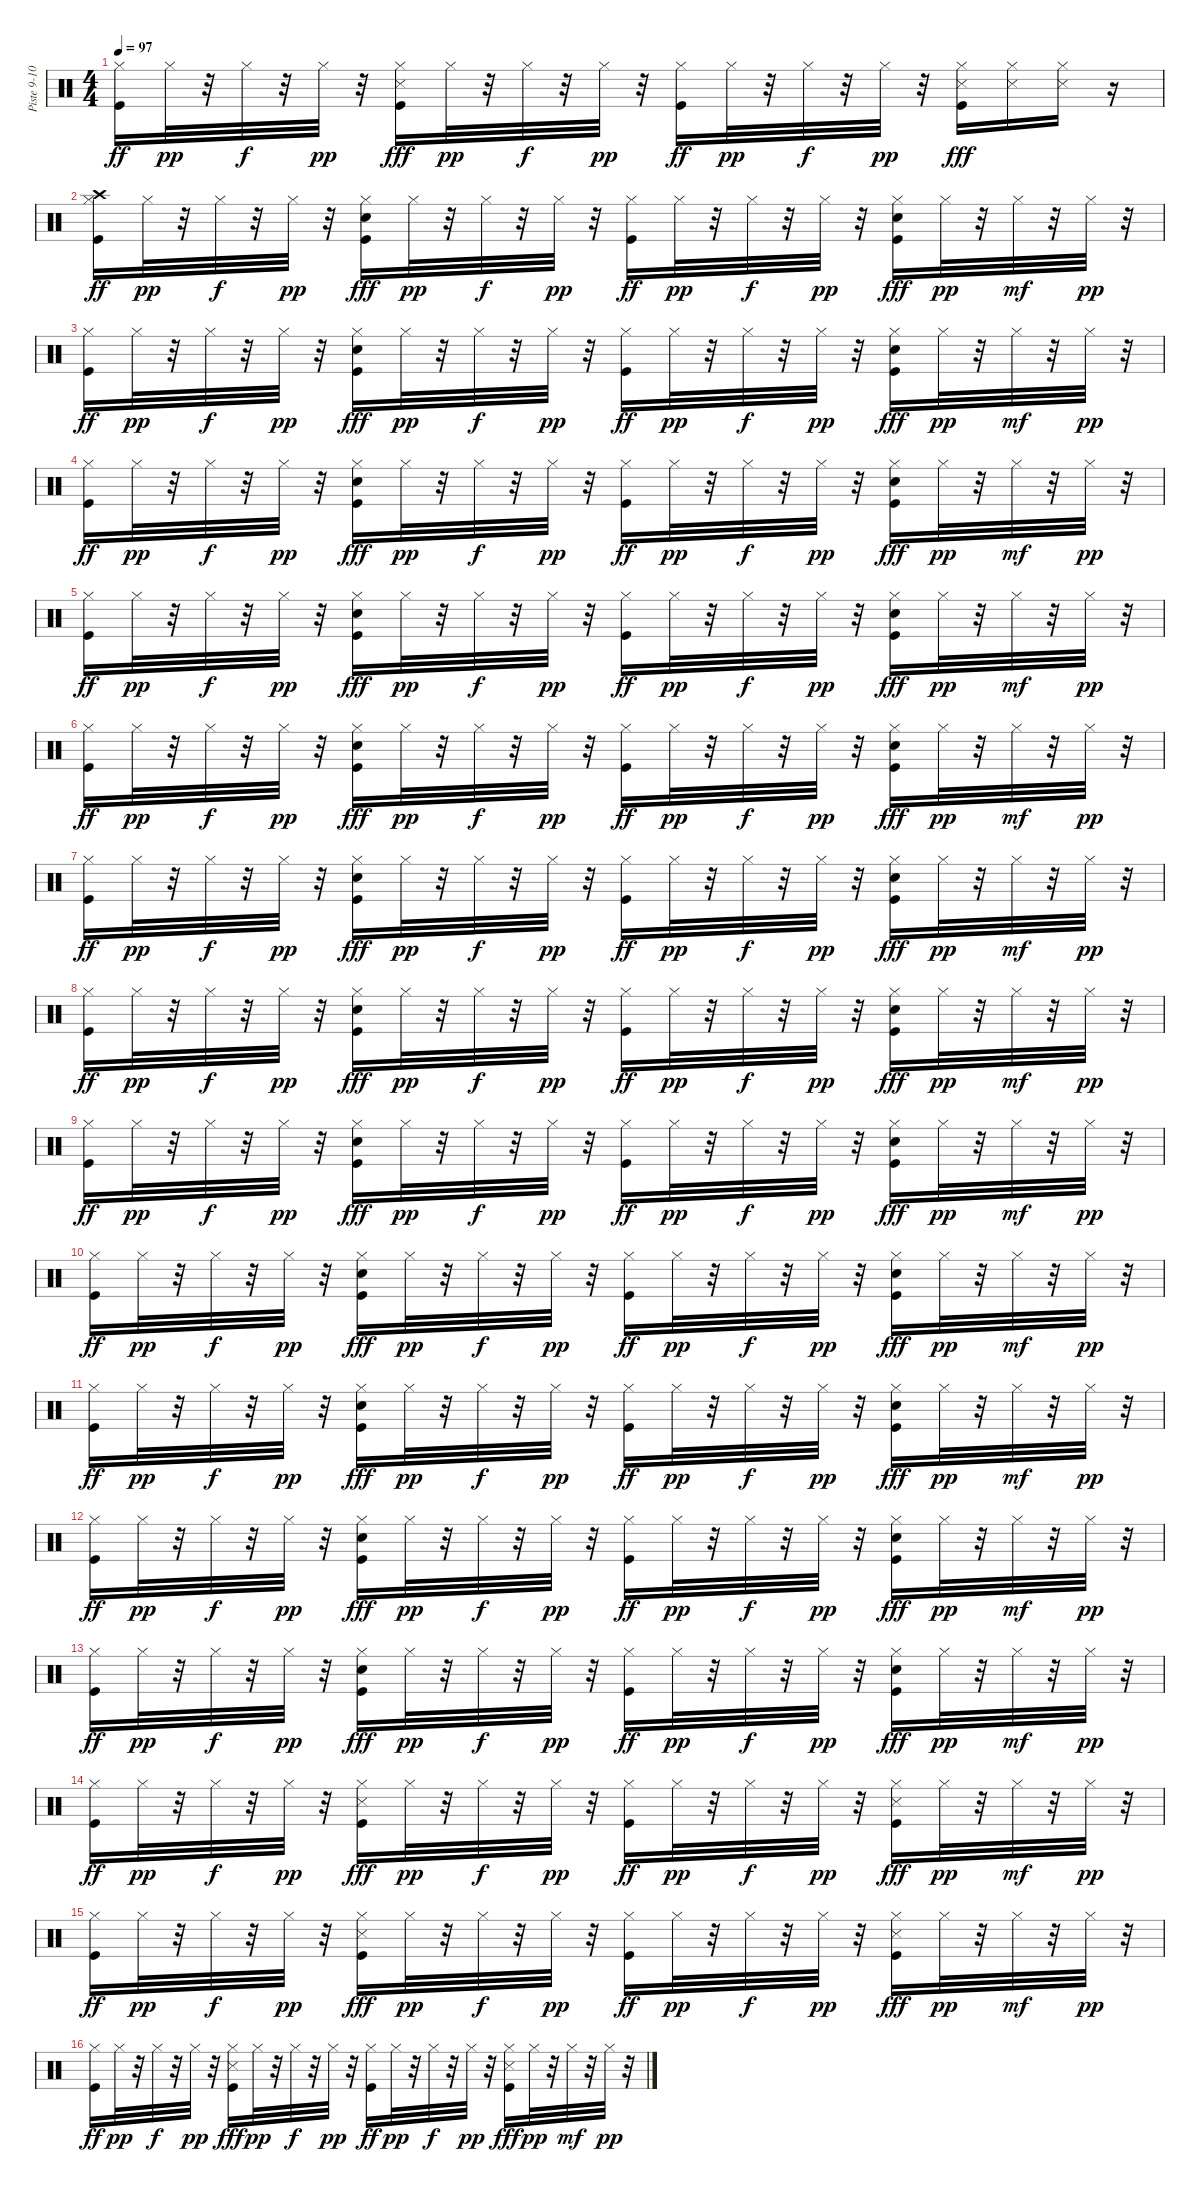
\track ("Piste 9-10-11-12-13-14" "Piste 9-10") {instrument percussion}
\staff {score}
\articulation defaults
\ts (4 4)
\tempo 97
\clef neutral
\ks c
("Hi-Hat (closed)" "Kick (hit)").16{dy ff} "Hi-Hat (closed)".32{dy pp} r.32 "Hi-Hat (closed)".32{dy f} r.32 "Hi-Hat (closed)".32{dy pp} r.32 ("Hi-Hat (closed)" "Kick (hit)" "Snare (side stick) 3").16{dy fff} "Hi-Hat (closed)".32{dy pp} r.32 "Hi-Hat (closed)".32{dy f} r.32 "Hi-Hat (closed)".32{dy pp} r.32 ("Hi-Hat (closed)" "Kick (hit)").16{dy ff} "Hi-Hat (closed)".32{dy pp} r.32 "Hi-Hat (closed)".32{dy f} r.32 "Hi-Hat (closed)".32{dy pp} r.32 ("Hi-Hat (closed)" "Kick (hit)" "Snare (side stick) 3").16{dy fff} ("Hi-Hat (closed)" "Snare (side stick) 3").16 ("Hi-Hat (closed)" "Snare (side stick) 3").16 r.16 |
("Hi-Hat (closed)" "Crash high (hit)" "Kick (hit)").16{dy ff} "Hi-Hat (closed)".32{dy pp} r.32 "Hi-Hat (closed)".32{dy f} r.32 "Hi-Hat (closed)".32{dy pp} r.32 ("Hi-Hat (closed)" "Snare (hit) 2" "Kick (hit)").16{dy fff} "Hi-Hat (closed)".32{dy pp} r.32 "Hi-Hat (closed)".32{dy f} r.32 "Hi-Hat (closed)".32{dy pp} r.32 ("Hi-Hat (closed)" "Kick (hit)").16{dy ff} "Hi-Hat (closed)".32{dy pp} r.32 "Hi-Hat (closed)".32{dy f} r.32 "Hi-Hat (closed)".32{dy pp} r.32 ("Hi-Hat (closed)" "Snare (hit) 2" "Kick (hit)").16{dy fff} "Hi-Hat (closed)".32{dy pp} r.32 "Hi-Hat (closed)".32{dy mf} r.32 "Hi-Hat (closed)".32{dy pp} r.32 |
("Hi-Hat (closed)" "Kick (hit)").16{dy ff} "Hi-Hat (closed)".32{dy pp} r.32 "Hi-Hat (closed)".32{dy f} r.32 "Hi-Hat (closed)".32{dy pp} r.32 ("Hi-Hat (closed)" "Snare (hit) 2" "Kick (hit)").16{dy fff} "Hi-Hat (closed)".32{dy pp} r.32 "Hi-Hat (closed)".32{dy f} r.32 "Hi-Hat (closed)".32{dy pp} r.32 ("Hi-Hat (closed)" "Kick (hit)").16{dy ff} "Hi-Hat (closed)".32{dy pp} r.32 "Hi-Hat (closed)".32{dy f} r.32 "Hi-Hat (closed)".32{dy pp} r.32 ("Hi-Hat (closed)" "Snare (hit) 2" "Kick (hit)").16{dy fff} "Hi-Hat (closed)".32{dy pp} r.32 "Hi-Hat (closed)".32{dy mf} r.32 "Hi-Hat (closed)".32{dy pp} r.32 |
("Hi-Hat (closed)" "Kick (hit)").16{dy ff} "Hi-Hat (closed)".32{dy pp} r.32 "Hi-Hat (closed)".32{dy f} r.32 "Hi-Hat (closed)".32{dy pp} r.32 ("Hi-Hat (closed)" "Snare (hit) 2" "Kick (hit)").16{dy fff} "Hi-Hat (closed)".32{dy pp} r.32 "Hi-Hat (closed)".32{dy f} r.32 "Hi-Hat (closed)".32{dy pp} r.32 ("Hi-Hat (closed)" "Kick (hit)").16{dy ff} "Hi-Hat (closed)".32{dy pp} r.32 "Hi-Hat (closed)".32{dy f} r.32 "Hi-Hat (closed)".32{dy pp} r.32 ("Hi-Hat (closed)" "Snare (hit) 2" "Kick (hit)").16{dy fff} "Hi-Hat (closed)".32{dy pp} r.32 "Hi-Hat (closed)".32{dy mf} r.32 "Hi-Hat (closed)".32{dy pp} r.32 |
("Hi-Hat (closed)" "Kick (hit)").16{dy ff} "Hi-Hat (closed)".32{dy pp} r.32 "Hi-Hat (closed)".32{dy f} r.32 "Hi-Hat (closed)".32{dy pp} r.32 ("Hi-Hat (closed)" "Snare (hit) 2" "Kick (hit)").16{dy fff} "Hi-Hat (closed)".32{dy pp} r.32 "Hi-Hat (closed)".32{dy f} r.32 "Hi-Hat (closed)".32{dy pp} r.32 ("Hi-Hat (closed)" "Kick (hit)").16{dy ff} "Hi-Hat (closed)".32{dy pp} r.32 "Hi-Hat (closed)".32{dy f} r.32 "Hi-Hat (closed)".32{dy pp} r.32 ("Hi-Hat (closed)" "Snare (hit) 2" "Kick (hit)").16{dy fff} "Hi-Hat (closed)".32{dy pp} r.32 "Hi-Hat (closed)".32{dy mf} r.32 "Hi-Hat (closed)".32{dy pp} r.32 |
("Hi-Hat (closed)" "Kick (hit)").16{dy ff} "Hi-Hat (closed)".32{dy pp} r.32 "Hi-Hat (closed)".32{dy f} r.32 "Hi-Hat (closed)".32{dy pp} r.32 ("Hi-Hat (closed)" "Snare (hit) 2" "Kick (hit)").16{dy fff} "Hi-Hat (closed)".32{dy pp} r.32 "Hi-Hat (closed)".32{dy f} r.32 "Hi-Hat (closed)".32{dy pp} r.32 ("Hi-Hat (closed)" "Kick (hit)").16{dy ff} "Hi-Hat (closed)".32{dy pp} r.32 "Hi-Hat (closed)".32{dy f} r.32 "Hi-Hat (closed)".32{dy pp} r.32 ("Hi-Hat (closed)" "Snare (hit) 2" "Kick (hit)").16{dy fff} "Hi-Hat (closed)".32{dy pp} r.32 "Hi-Hat (closed)".32{dy mf} r.32 "Hi-Hat (closed)".32{dy pp} r.32 |
("Hi-Hat (closed)" "Kick (hit)").16{dy ff} "Hi-Hat (closed)".32{dy pp} r.32 "Hi-Hat (closed)".32{dy f} r.32 "Hi-Hat (closed)".32{dy pp} r.32 ("Hi-Hat (closed)" "Snare (hit) 2" "Kick (hit)").16{dy fff} "Hi-Hat (closed)".32{dy pp} r.32 "Hi-Hat (closed)".32{dy f} r.32 "Hi-Hat (closed)".32{dy pp} r.32 ("Hi-Hat (closed)" "Kick (hit)").16{dy ff} "Hi-Hat (closed)".32{dy pp} r.32 "Hi-Hat (closed)".32{dy f} r.32 "Hi-Hat (closed)".32{dy pp} r.32 ("Hi-Hat (closed)" "Snare (hit) 2" "Kick (hit)").16{dy fff} "Hi-Hat (closed)".32{dy pp} r.32 "Hi-Hat (closed)".32{dy mf} r.32 "Hi-Hat (closed)".32{dy pp} r.32 |
("Hi-Hat (closed)" "Kick (hit)").16{dy ff} "Hi-Hat (closed)".32{dy pp} r.32 "Hi-Hat (closed)".32{dy f} r.32 "Hi-Hat (closed)".32{dy pp} r.32 ("Hi-Hat (closed)" "Snare (hit) 2" "Kick (hit)").16{dy fff} "Hi-Hat (closed)".32{dy pp} r.32 "Hi-Hat (closed)".32{dy f} r.32 "Hi-Hat (closed)".32{dy pp} r.32 ("Hi-Hat (closed)" "Kick (hit)").16{dy ff} "Hi-Hat (closed)".32{dy pp} r.32 "Hi-Hat (closed)".32{dy f} r.32 "Hi-Hat (closed)".32{dy pp} r.32 ("Hi-Hat (closed)" "Snare (hit) 2" "Kick (hit)").16{dy fff} "Hi-Hat (closed)".32{dy pp} r.32 "Hi-Hat (closed)".32{dy mf} r.32 "Hi-Hat (closed)".32{dy pp} r.32 |
("Hi-Hat (closed)" "Kick (hit)").16{dy ff} "Hi-Hat (closed)".32{dy pp} r.32 "Hi-Hat (closed)".32{dy f} r.32 "Hi-Hat (closed)".32{dy pp} r.32 ("Hi-Hat (closed)" "Snare (hit) 2" "Kick (hit)").16{dy fff} "Hi-Hat (closed)".32{dy pp} r.32 "Hi-Hat (closed)".32{dy f} r.32 "Hi-Hat (closed)".32{dy pp} r.32 ("Hi-Hat (closed)" "Kick (hit)").16{dy ff} "Hi-Hat (closed)".32{dy pp} r.32 "Hi-Hat (closed)".32{dy f} r.32 "Hi-Hat (closed)".32{dy pp} r.32 ("Hi-Hat (closed)" "Snare (hit) 2" "Kick (hit)").16{dy fff} "Hi-Hat (closed)".32{dy pp} r.32 "Hi-Hat (closed)".32{dy mf} r.32 "Hi-Hat (closed)".32{dy pp} r.32 |
("Hi-Hat (closed)" "Kick (hit)").16{dy ff} "Hi-Hat (closed)".32{dy pp} r.32 "Hi-Hat (closed)".32{dy f} r.32 "Hi-Hat (closed)".32{dy pp} r.32 ("Hi-Hat (closed)" "Snare (hit) 2" "Kick (hit)").16{dy fff} "Hi-Hat (closed)".32{dy pp} r.32 "Hi-Hat (closed)".32{dy f} r.32 "Hi-Hat (closed)".32{dy pp} r.32 ("Hi-Hat (closed)" "Kick (hit)").16{dy ff} "Hi-Hat (closed)".32{dy pp} r.32 "Hi-Hat (closed)".32{dy f} r.32 "Hi-Hat (closed)".32{dy pp} r.32 ("Hi-Hat (closed)" "Snare (hit) 2" "Kick (hit)").16{dy fff} "Hi-Hat (closed)".32{dy pp} r.32 "Hi-Hat (closed)".32{dy mf} r.32 "Hi-Hat (closed)".32{dy pp} r.32 |
("Hi-Hat (closed)" "Kick (hit)").16{dy ff} "Hi-Hat (closed)".32{dy pp} r.32 "Hi-Hat (closed)".32{dy f} r.32 "Hi-Hat (closed)".32{dy pp} r.32 ("Hi-Hat (closed)" "Snare (hit) 2" "Kick (hit)").16{dy fff} "Hi-Hat (closed)".32{dy pp} r.32 "Hi-Hat (closed)".32{dy f} r.32 "Hi-Hat (closed)".32{dy pp} r.32 ("Hi-Hat (closed)" "Kick (hit)").16{dy ff} "Hi-Hat (closed)".32{dy pp} r.32 "Hi-Hat (closed)".32{dy f} r.32 "Hi-Hat (closed)".32{dy pp} r.32 ("Hi-Hat (closed)" "Snare (hit) 2" "Kick (hit)").16{dy fff} "Hi-Hat (closed)".32{dy pp} r.32 "Hi-Hat (closed)".32{dy mf} r.32 "Hi-Hat (closed)".32{dy pp} r.32 |
("Hi-Hat (closed)" "Kick (hit)").16{dy ff} "Hi-Hat (closed)".32{dy pp} r.32 "Hi-Hat (closed)".32{dy f} r.32 "Hi-Hat (closed)".32{dy pp} r.32 ("Hi-Hat (closed)" "Snare (hit) 2" "Kick (hit)").16{dy fff} "Hi-Hat (closed)".32{dy pp} r.32 "Hi-Hat (closed)".32{dy f} r.32 "Hi-Hat (closed)".32{dy pp} r.32 ("Hi-Hat (closed)" "Kick (hit)").16{dy ff} "Hi-Hat (closed)".32{dy pp} r.32 "Hi-Hat (closed)".32{dy f} r.32 "Hi-Hat (closed)".32{dy pp} r.32 ("Hi-Hat (closed)" "Snare (hit) 2" "Kick (hit)").16{dy fff} "Hi-Hat (closed)".32{dy pp} r.32 "Hi-Hat (closed)".32{dy mf} r.32 "Hi-Hat (closed)".32{dy pp} r.32 |
("Hi-Hat (closed)" "Kick (hit)").16{dy ff} "Hi-Hat (closed)".32{dy pp} r.32 "Hi-Hat (closed)".32{dy f} r.32 "Hi-Hat (closed)".32{dy pp} r.32 ("Hi-Hat (closed)" "Snare (hit) 2" "Kick (hit)").16{dy fff} "Hi-Hat (closed)".32{dy pp} r.32 "Hi-Hat (closed)".32{dy f} r.32 "Hi-Hat (closed)".32{dy pp} r.32 ("Hi-Hat (closed)" "Kick (hit)").16{dy ff} "Hi-Hat (closed)".32{dy pp} r.32 "Hi-Hat (closed)".32{dy f} r.32 "Hi-Hat (closed)".32{dy pp} r.32 ("Hi-Hat (closed)" "Snare (hit) 2" "Kick (hit)").16{dy fff} "Hi-Hat (closed)".32{dy pp} r.32 "Hi-Hat (closed)".32{dy mf} r.32 "Hi-Hat (closed)".32{dy pp} r.32 |
("Hi-Hat (closed)" "Kick (hit)").16{dy ff} "Hi-Hat (closed)".32{dy pp} r.32 "Hi-Hat (closed)".32{dy f} r.32 "Hi-Hat (closed)".32{dy pp} r.32 ("Hi-Hat (closed)" "Kick (hit)" "Snare (side stick) 3").16{dy fff} "Hi-Hat (closed)".32{dy pp} r.32 "Hi-Hat (closed)".32{dy f} r.32 "Hi-Hat (closed)".32{dy pp} r.32 ("Hi-Hat (closed)" "Kick (hit)").16{dy ff} "Hi-Hat (closed)".32{dy pp} r.32 "Hi-Hat (closed)".32{dy f} r.32 "Hi-Hat (closed)".32{dy pp} r.32 ("Hi-Hat (closed)" "Kick (hit)" "Snare (side stick) 3").16{dy fff} "Hi-Hat (closed)".32{dy pp} r.32 "Hi-Hat (closed)".32{dy mf} r.32 "Hi-Hat (closed)".32{dy pp} r.32 |
("Hi-Hat (closed)" "Kick (hit)").16{dy ff} "Hi-Hat (closed)".32{dy pp} r.32 "Hi-Hat (closed)".32{dy f} r.32 "Hi-Hat (closed)".32{dy pp} r.32 ("Hi-Hat (closed)" "Kick (hit)" "Snare (side stick) 3").16{dy fff} "Hi-Hat (closed)".32{dy pp} r.32 "Hi-Hat (closed)".32{dy f} r.32 "Hi-Hat (closed)".32{dy pp} r.32 ("Hi-Hat (closed)" "Kick (hit)").16{dy ff} "Hi-Hat (closed)".32{dy pp} r.32 "Hi-Hat (closed)".32{dy f} r.32 "Hi-Hat (closed)".32{dy pp} r.32 ("Hi-Hat (closed)" "Kick (hit)" "Snare (side stick) 3").16{dy fff} "Hi-Hat (closed)".32{dy pp} r.32 "Hi-Hat (closed)".32{dy mf} r.32 "Hi-Hat (closed)".32{dy pp} r.32 |
("Hi-Hat (closed)" "Kick (hit)").16{dy ff} "Hi-Hat (closed)".32{dy pp} r.32 "Hi-Hat (closed)".32{dy f} r.32 "Hi-Hat (closed)".32{dy pp} r.32 ("Hi-Hat (closed)" "Kick (hit)" "Snare (side stick) 3").16{dy fff} "Hi-Hat (closed)".32{dy pp} r.32 "Hi-Hat (closed)".32{dy f} r.32 "Hi-Hat (closed)".32{dy pp} r.32 ("Hi-Hat (closed)" "Kick (hit)").16{dy ff} "Hi-Hat (closed)".32{dy pp} r.32 "Hi-Hat (closed)".32{dy f} r.32 "Hi-Hat (closed)".32{dy pp} r.32 ("Hi-Hat (closed)" "Kick (hit)" "Snare (side stick) 3").16{dy fff} "Hi-Hat (closed)".32{dy pp} r.32 "Hi-Hat (closed)".32{dy mf} r.32 "Hi-Hat (closed)".32{dy pp} r.32
